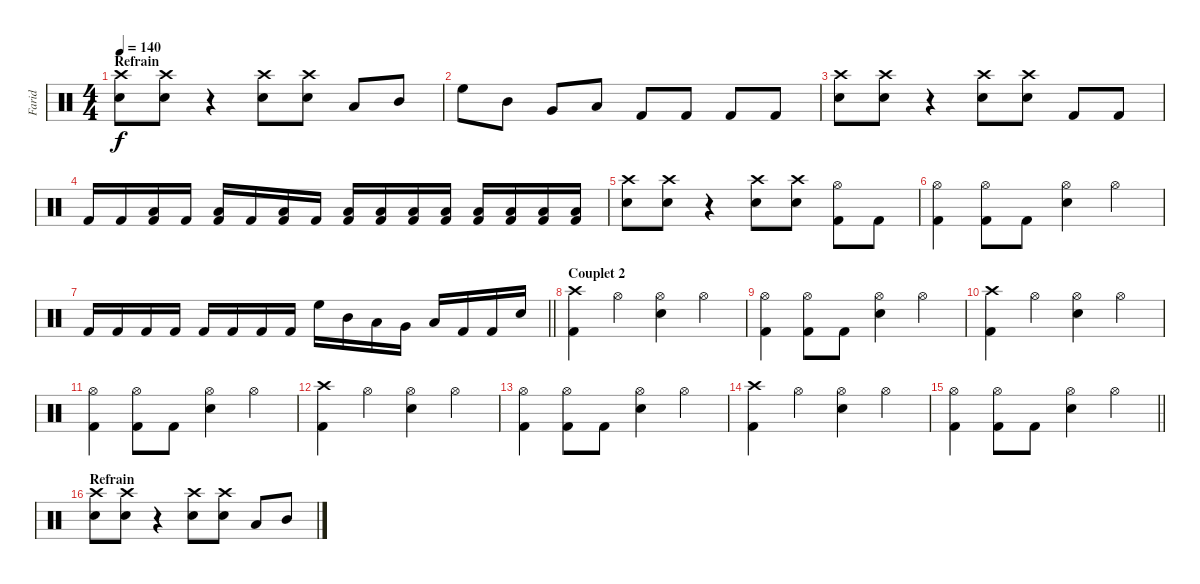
\track ("Farid" "Farid") {instrument percussion}
\staff {score}
\articulation defaults
\ts (4 4)
\section ("" "Refrain")
\tempo 140
\clef neutral
\ks c
("Crash high (hit)" "Snare (hit) 2").8{dy f} ("Crash high (hit)" "Snare (hit) 2").8 r.4 ("Crash high (hit)" "Snare (hit) 2").8 ("Crash high (hit)" "Snare (hit) 2").8 "Low Tom (hit)".8 "Mid Tom (hit)".8 |
"High Floor Tom (hit)".8 "Mid Tom (hit)".8 "Very Low Tom (hit)".8 "Low Floor Tom (hit)".8 "Kick (hit) 2".8 "Kick (hit) 2".8 "Kick (hit) 2".8 "Kick (hit) 2".8 |
("Crash high (hit)" "Snare (hit) 2").8 ("Crash high (hit)" "Snare (hit) 2").8 r.4 ("Crash high (hit)" "Snare (hit) 2").8 ("Crash high (hit)" "Snare (hit) 2").8 "Kick (hit) 2".8 "Kick (hit) 2".8 |
"Kick (hit) 2".16 "Kick (hit) 2".16 ("Low Floor Tom (hit)" "Kick (hit) 2").16 "Kick (hit) 2".16 ("Low Floor Tom (hit)" "Kick (hit) 2").16 "Kick (hit) 2".16 ("Low Floor Tom (hit)" "Kick (hit) 2").16 "Kick (hit) 2".16 ("Low Floor Tom (hit)" "Kick (hit) 2").16 ("Low Floor Tom (hit)" "Kick (hit) 2").16 ("Low Floor Tom (hit)" "Kick (hit) 2").16 ("Low Floor Tom (hit)" "Kick (hit) 2").16 ("Low Floor Tom (hit)" "Kick (hit) 2").16 ("Low Floor Tom (hit)" "Kick (hit) 2").16 ("Low Floor Tom (hit)" "Kick (hit) 2").16 ("Low Floor Tom (hit)" "Kick (hit) 2").16 |
("Crash high (hit)" "Snare (hit) 2").8 ("Crash high (hit)" "Snare (hit) 2").8 r.4 ("Crash high (hit)" "Snare (hit) 2").8 ("Crash high (hit)" "Snare (hit) 2").8 ("Hi-Hat (open)" "Kick (hit) 2").8 "Kick (hit) 2".8 |
("Hi-Hat (open)" "Kick (hit) 2").4 ("Hi-Hat (open)" "Kick (hit) 2").8 "Kick (hit) 2".8 ("Hi-Hat (open)" "Snare (hit) 2").4 "Hi-Hat (open)".4 |
\barLineRight lightlight "Kick (hit) 2".16 "Kick (hit) 2".16 "Kick (hit) 2".16 "Kick (hit) 2".16 "Kick (hit) 2".16 "Kick (hit) 2".16 "Kick (hit) 2".16 "Kick (hit) 2".16 "High Floor Tom (hit)".16 "Mid Tom (hit)".16 "Low Tom (hit)".16 "Very Low Tom (hit)".16 "Low Floor Tom (hit)".16 "Kick (hit) 2".16 "Kick (hit) 2".16 "Snare (hit) 2".16
|
\section ("" "Couplet 2")
("Crash high (hit)" "Kick (hit) 2").4 "Hi-Hat (open)".4 ("Hi-Hat (open)" "Snare (hit) 2").4 "Hi-Hat (open)".4 |
("Hi-Hat (open)" "Kick (hit) 2").4 ("Hi-Hat (open)" "Kick (hit) 2").8 "Kick (hit) 2".8 ("Hi-Hat (open)" "Snare (hit) 2").4 "Hi-Hat (open)".4 |
("Crash high (hit)" "Kick (hit) 2").4 "Hi-Hat (open)".4 ("Hi-Hat (open)" "Snare (hit) 2").4 "Hi-Hat (open)".4 |
("Hi-Hat (open)" "Kick (hit) 2").4 ("Hi-Hat (open)" "Kick (hit) 2").8 "Kick (hit) 2".8 ("Hi-Hat (open)" "Snare (hit) 2").4 "Hi-Hat (open)".4 |
("Crash high (hit)" "Kick (hit) 2").4 "Hi-Hat (open)".4 ("Hi-Hat (open)" "Snare (hit) 2").4 "Hi-Hat (open)".4 |
("Hi-Hat (open)" "Kick (hit) 2").4 ("Hi-Hat (open)" "Kick (hit) 2").8 "Kick (hit) 2".8 ("Hi-Hat (open)" "Snare (hit) 2").4 "Hi-Hat (open)".4 |
("Crash high (hit)" "Kick (hit) 2").4 "Hi-Hat (open)".4 ("Hi-Hat (open)" "Snare (hit) 2").4 "Hi-Hat (open)".4 |
\barLineRight lightlight
("Hi-Hat (open)" "Kick (hit) 2").4 ("Hi-Hat (open)" "Kick (hit) 2").8 "Kick (hit) 2".8 ("Hi-Hat (open)" "Snare (hit) 2").4 "Hi-Hat (open)".4 |
\section ("" "Refrain")
("Crash high (hit)" "Snare (hit) 2").8 ("Crash high (hit)" "Snare (hit) 2").8 r.4 ("Crash high (hit)" "Snare (hit) 2").8 ("Crash high (hit)" "Snare (hit) 2").8 "Low Tom (hit)".8 "Mid Tom (hit)".8
